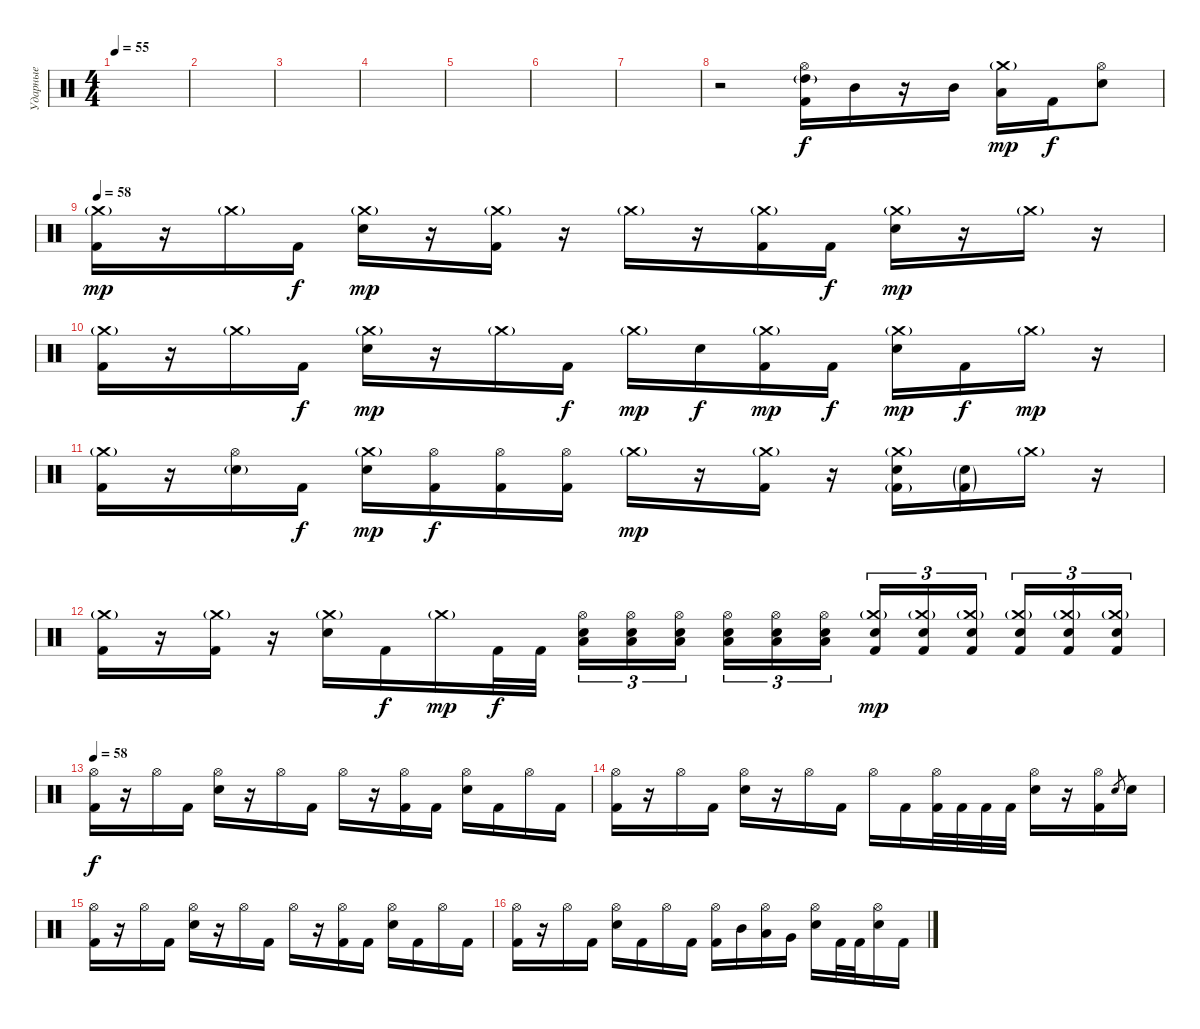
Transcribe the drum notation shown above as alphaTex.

\track ("Ударные" "Ударные") {instrument percussion}
\staff {score}
\articulation defaults
\ts (4 4)
\tempo 55
\clef neutral
\ks c
|
|
|
|
|
|
|
r.2 ("Hi-Hat (open)" "High Tom (hit)"{g} "Kick (hit) 2").16 "Mid Tom (hit)".16{dy f} r.16 "Mid Tom (hit)".16 ("Crash medium (hit)"{g} "Low Tom (hit)").16{dy mp} "Kick (hit) 2".16{dy f} ("Hi-Hat (open)" "Electric Snare (hit)").8 |
\tempo 58
("Crash medium (hit)"{g} "Kick (hit) 2").16{dy mp} r.16 "Crash medium (hit)"{g}.16 "Kick (hit) 2".16{dy f} ("Crash medium (hit)"{g} "Electric Snare (hit)").16{dy mp} r.16 ("Crash medium (hit)"{g} "Kick (hit) 2").16 r.16 "Crash medium (hit)"{g}.16 r.16 ("Crash medium (hit)"{g} "Kick (hit) 2").16 "Kick (hit) 2".16{dy f} ("Crash medium (hit)"{g} "Electric Snare (hit)").16{dy mp} r.16 "Crash medium (hit)"{g}.16 r.16 |
("Crash medium (hit)"{g} "Kick (hit) 2").16 r.16 "Crash medium (hit)"{g}.16 "Kick (hit) 2".16{dy f} ("Crash medium (hit)"{g} "Electric Snare (hit)").16{dy mp} r.16 "Crash medium (hit)"{g}.16 "Kick (hit) 2".16{dy f} "Crash medium (hit)"{g}.16{dy mp} "Electric Snare (hit)".16{dy f} ("Crash medium (hit)"{g} "Kick (hit) 2").16{dy mp} "Kick (hit) 2".16{dy f} ("Crash medium (hit)"{g} "Electric Snare (hit)").16{dy mp} "Kick (hit) 2".16{dy f} "Crash medium (hit)"{g}.16{dy mp} r.16 |
("Crash medium (hit)"{g} "Kick (hit) 2").16 r.16 ("Hi-Hat (open)" "Electric Snare (hit)"{g}).16 "Kick (hit) 2".16{dy f} ("Crash medium (hit)"{g} "Electric Snare (hit)").16{dy mp} ("Hi-Hat (open)" "Kick (hit) 2").16{dy f} ("Hi-Hat (open)" "Kick (hit) 2").16 ("Hi-Hat (open)" "Kick (hit) 2").16 "Crash medium (hit)"{g}.16{dy mp} r.16 ("Crash medium (hit)"{g} "Kick (hit) 2").16 r.16 ("Crash medium (hit)"{g} "Electric Snare (hit)" "Kick (hit) 2"{g}).16 ("Electric Snare (hit)"{g} "Kick (hit) 2"{g}).16 "Crash medium (hit)"{g}.16 r.16 |
("Crash medium (hit)"{g} "Kick (hit) 2").16 r.16 ("Crash medium (hit)"{g} "Kick (hit) 2").16 r.16 ("Crash medium (hit)"{g} "Electric Snare (hit)").16 "Kick (hit) 2".16{dy f} "Crash medium (hit)"{g}.16{dy mp} "Kick (hit) 2".32{dy f} "Kick (hit) 2".32 ("Hi-Hat (open)" "Electric Snare (hit)" "Low Tom (hit)").16{tu (3 2)} ("Hi-Hat (open)" "Electric Snare (hit)" "Low Tom (hit)").16{tu (3 2)} ("Hi-Hat (open)" "Electric Snare (hit)" "Low Tom (hit)").16{tu (3 2) beam splitsecondary} ("Hi-Hat (open)" "Electric Snare (hit)" "Low Tom (hit)").16{tu (3 2)} ("Hi-Hat (open)" "Electric Snare (hit)" "Low Tom (hit)").16{tu (3 2)} ("Hi-Hat (open)" "Electric Snare (hit)" "Low Tom (hit)").16{tu (3 2)} ("Crash medium (hit)"{g} "Electric Snare (hit)" "Kick (hit) 2").16{tu (3 2) dy mp} ("Crash medium (hit)"{g} "Electric Snare (hit)" "Kick (hit) 2").16{tu (3 2)} ("Crash medium (hit)"{g} "Electric Snare (hit)" "Kick (hit) 2").16{tu (3 2) beam splitsecondary} ("Crash medium (hit)"{g} "Electric Snare (hit)" "Kick (hit) 2").16{tu (3 2)} ("Crash medium (hit)"{g} "Electric Snare (hit)" "Kick (hit) 2").16{tu (3 2)} ("Crash medium (hit)"{g} "Electric Snare (hit)" "Kick (hit) 2").16{tu (3 2)} |
\tempo 58
("Hi-Hat (open)" "Kick (hit) 2").16{dy f} r.16 "Hi-Hat (open)".16 "Kick (hit) 2".16 ("Hi-Hat (open)" "Electric Snare (hit)").16 r.16 "Hi-Hat (open)".16 "Kick (hit) 2".16 "Hi-Hat (open)".16 r.16 ("Hi-Hat (open)" "Kick (hit) 2").16 "Kick (hit) 2".16 ("Hi-Hat (open)" "Electric Snare (hit)").16 "Kick (hit) 2".16 "Hi-Hat (open)".16 "Kick (hit) 2".16 |
("Hi-Hat (open)" "Kick (hit) 2").16 r.16 "Hi-Hat (open)".16 "Kick (hit) 2".16 ("Hi-Hat (open)" "Electric Snare (hit)").16 r.16 "Hi-Hat (open)".16 "Kick (hit) 2".16 "Hi-Hat (open)".16 "Kick (hit) 2".16 ("Hi-Hat (open)" "Kick (hit) 2").32 "Kick (hit) 2".32 "Kick (hit) 2".32 "Kick (hit) 2".32 ("Hi-Hat (open)" "Electric Snare (hit)").16 r.16 ("Hi-Hat (open)" "Kick (hit) 2").16 "Electric Snare (hit)".8{gr} "Electric Snare (hit)".16 |
("Hi-Hat (open)" "Kick (hit) 2").16 r.16 "Hi-Hat (open)".16 "Kick (hit) 2".16 ("Hi-Hat (open)" "Electric Snare (hit)").16 r.16 "Hi-Hat (open)".16 "Kick (hit) 2".16 "Hi-Hat (open)".16 r.16 ("Hi-Hat (open)" "Kick (hit) 2").16 "Kick (hit) 2".16 ("Hi-Hat (open)" "Electric Snare (hit)").16 "Kick (hit) 2".16 "Hi-Hat (open)".16 "Kick (hit) 2".16 |
("Hi-Hat (open)" "Kick (hit) 2").16 r.16 "Hi-Hat (open)".16 "Kick (hit) 2".16 ("Hi-Hat (open)" "Electric Snare (hit)").16 "Kick (hit) 2".16 "Hi-Hat (open)".16 "Kick (hit) 2".16 ("Hi-Hat (open)" "Kick (hit) 2").16 "Mid Tom (hit)".16 ("Hi-Hat (open)" "Low Tom (hit)").16 "Very Low Tom (hit)".16 ("Hi-Hat (open)" "Electric Snare (hit)").16 "Kick (hit) 2".32 "Kick (hit) 2".32 ("Hi-Hat (open)" "Electric Snare (hit)").16 "Kick (hit) 2".16
